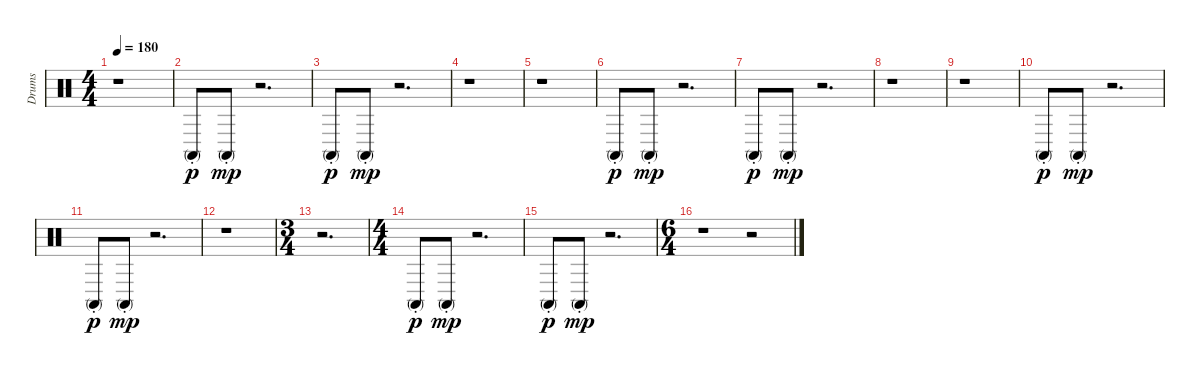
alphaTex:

\track ("Drums" "Drums") {instrument percussion}
\staff {score}
\articulation defaults
\ts (4 4)
\tempo 180
\clef neutral
\ks c
r.1{dy mp} |
"Conga high (mute)"{st}.8{dy p} "Conga high (mute)"{st}.8{dy mp} r.2{d} |
"Conga high (mute)"{st}.8{dy p} "Conga high (mute)"{st}.8{dy mp} r.2{d} |
r.1 |
r.1 |
"Conga high (mute)"{st}.8{dy p} "Conga high (mute)"{st}.8{dy mp} r.2{d} |
"Conga high (mute)"{st}.8{dy p} "Conga high (mute)"{st}.8{dy mp} r.2{d} |
r.1 |
r.1 |
"Conga high (mute)"{st}.8{dy p} "Conga high (mute)"{st}.8{dy mp} r.2{d} |
"Conga high (mute)"{st}.8{dy p} "Conga high (mute)"{st}.8{dy mp} r.2{d} |
r.1 |
\ts (3 4)
r.2{d} |
\ts (4 4)
"Conga high (mute)"{st}.8{dy p} "Conga high (mute)"{st}.8{dy mp} r.2{d} |
"Conga high (mute)"{st}.8{dy p} "Conga high (mute)"{st}.8{dy mp} r.2{d} |
\ts (6 4)
r.1 r.2
